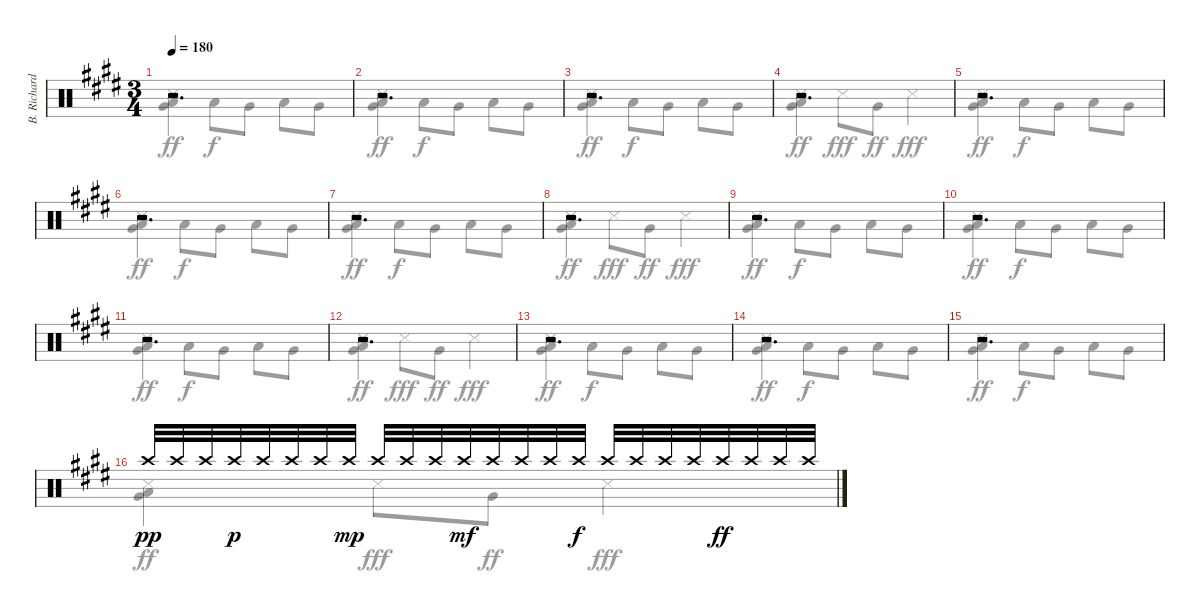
\track ("B. Richardson Drums" "B. Richard") {instrument percussion}
\staff {score}
\articulation defaults
\voice
\ts (3 4)
\tempo 180
\clef neutral
\ks c#minor
r.2{d dy pp} |
r.2{d} |
r.2{d} |
r.2{d} |
r.2{d} |
r.2{d} |
r.2{d} |
r.2{d} |
r.2{d} |
r.2{d} |
r.2{d} |
r.2{d} |
r.2{d} |
r.2{d} |
r.2{d} |
"Crash high (hit)".32 "Crash high (hit)".32 "Crash high (hit)".32 "Crash high (hit)".32{dy p} "Crash high (hit)".32 "Crash high (hit)".32 "Crash high (hit)".32 "Crash high (hit)".32{dy mp} "Crash high (hit)".32 "Crash high (hit)".32 "Crash high (hit)".32 "Crash high (hit)".32{dy mf} "Crash high (hit)".32 "Crash high (hit)".32 "Crash high (hit)".32 "Crash high (hit)".32{dy f} "Crash high (hit)".32 "Crash high (hit)".32 "Crash high (hit)".32 "Crash high (hit)".32 "Crash high (hit)".32{dy ff} "Crash high (hit)".32 "Crash high (hit)".32 "Crash high (hit)".32
\voice
\clef neutral
\ottava regular
\simile none
\ks c#minor
("Snare (side stick) 3" "Very Low Tom (hit)" "Low Floor Tom (hit)").4{dy ff} "Low Floor Tom (hit)".8{dy f} "Very Low Tom (hit)".8 "Low Floor Tom (hit)".8 "Very Low Tom (hit)".8 |
("Snare (side stick) 3" "Very Low Tom (hit)" "Low Floor Tom (hit)").4{dy ff} "Low Floor Tom (hit)".8{dy f} "Very Low Tom (hit)".8 "Low Floor Tom (hit)".8 "Very Low Tom (hit)".8 |
("Snare (side stick) 3" "Very Low Tom (hit)" "Low Floor Tom (hit)").4{dy ff} "Low Floor Tom (hit)".8{dy f} "Very Low Tom (hit)".8 "Low Floor Tom (hit)".8 "Very Low Tom (hit)".8 |
("Snare (side stick) 3" "Very Low Tom (hit)" "Low Floor Tom (hit)").4{dy ff} "Snare (side stick) 3".8{dy fff} "Very Low Tom (hit)".8{dy ff} "Snare (side stick) 3".4{dy fff} |
("Snare (side stick) 3" "Very Low Tom (hit)" "Low Floor Tom (hit)").4{dy ff} "Low Floor Tom (hit)".8{dy f} "Very Low Tom (hit)".8 "Low Floor Tom (hit)".8 "Very Low Tom (hit)".8 |
("Snare (side stick) 3" "Very Low Tom (hit)" "Low Floor Tom (hit)").4{dy ff} "Low Floor Tom (hit)".8{dy f} "Very Low Tom (hit)".8 "Low Floor Tom (hit)".8 "Very Low Tom (hit)".8 |
("Snare (side stick) 3" "Very Low Tom (hit)" "Low Floor Tom (hit)").4{dy ff} "Low Floor Tom (hit)".8{dy f} "Very Low Tom (hit)".8 "Low Floor Tom (hit)".8 "Very Low Tom (hit)".8 |
("Snare (side stick) 3" "Very Low Tom (hit)" "Low Floor Tom (hit)").4{dy ff} "Snare (side stick) 3".8{dy fff} "Very Low Tom (hit)".8{dy ff} "Snare (side stick) 3".4{dy fff} |
("Snare (side stick) 3" "Very Low Tom (hit)" "Low Floor Tom (hit)").4{dy ff} "Low Floor Tom (hit)".8{dy f} "Very Low Tom (hit)".8 "Low Floor Tom (hit)".8 "Very Low Tom (hit)".8 |
("Snare (side stick) 3" "Very Low Tom (hit)" "Low Floor Tom (hit)").4{dy ff} "Low Floor Tom (hit)".8{dy f} "Very Low Tom (hit)".8 "Low Floor Tom (hit)".8 "Very Low Tom (hit)".8 |
("Snare (side stick) 3" "Very Low Tom (hit)" "Low Floor Tom (hit)").4{dy ff} "Low Floor Tom (hit)".8{dy f} "Very Low Tom (hit)".8 "Low Floor Tom (hit)".8 "Very Low Tom (hit)".8 |
("Snare (side stick) 3" "Very Low Tom (hit)" "Low Floor Tom (hit)").4{dy ff} "Snare (side stick) 3".8{dy fff} "Very Low Tom (hit)".8{dy ff} "Snare (side stick) 3".4{dy fff} |
("Snare (side stick) 3" "Very Low Tom (hit)" "Low Floor Tom (hit)").4{dy ff} "Low Floor Tom (hit)".8{dy f} "Very Low Tom (hit)".8 "Low Floor Tom (hit)".8 "Very Low Tom (hit)".8 |
("Snare (side stick) 3" "Very Low Tom (hit)" "Low Floor Tom (hit)").4{dy ff} "Low Floor Tom (hit)".8{dy f} "Very Low Tom (hit)".8 "Low Floor Tom (hit)".8 "Very Low Tom (hit)".8 |
("Snare (side stick) 3" "Very Low Tom (hit)" "Low Floor Tom (hit)").4{dy ff} "Low Floor Tom (hit)".8{dy f} "Very Low Tom (hit)".8 "Low Floor Tom (hit)".8 "Very Low Tom (hit)".8 |
("Snare (side stick) 3" "Very Low Tom (hit)" "Low Floor Tom (hit)").4{dy ff} "Snare (side stick) 3".8{dy fff} "Very Low Tom (hit)".8{dy ff} "Snare (side stick) 3".4{dy fff}
